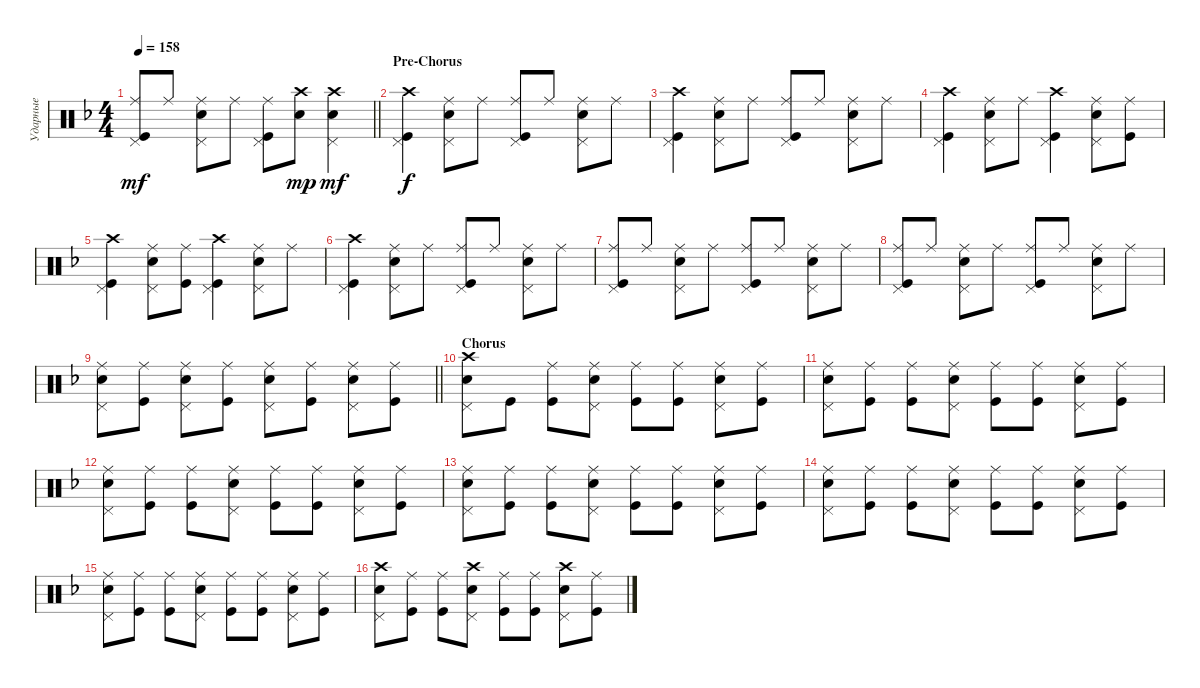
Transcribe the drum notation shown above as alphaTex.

\track ("Ударные" "Ударные") {instrument percussion}
\staff {score}
\articulation defaults
\ts (4 4)
\tempo 158
\clef neutral
\barLineRight lightlight
\ks dminor
("Ride (middle)" "Kick (hit)" "Pedal Hi-Hat (hit)").8{dy mf} "Ride (middle)".8 ("Snare (hit) 2" "Pedal Hi-Hat (hit)" "Ride (middle)").8 "Ride (middle)".8 ("Ride (middle)" "Kick (hit)" "Pedal Hi-Hat (hit)").8 ("Crash high (hit)" "Snare (hit) 2").8{dy mp} ("Crash high (hit)" "Snare (hit) 2" "Pedal Hi-Hat (hit)").4{dy mf} |
\section ("" "Pre-Chorus")
("Kick (hit)" "Crash high (hit)" "Pedal Hi-Hat (hit)").4{dy f} ("Ride (middle)" "Snare (hit) 2" "Pedal Hi-Hat (hit)").8 "Ride (middle)".8 ("Ride (middle)" "Kick (hit)" "Pedal Hi-Hat (hit)").8 "Ride (middle)".8 ("Ride (middle)" "Snare (hit) 2" "Pedal Hi-Hat (hit)").8 "Ride (middle)".8 |
("Kick (hit)" "Crash high (hit)" "Pedal Hi-Hat (hit)").4 ("Ride (middle)" "Snare (hit) 2" "Pedal Hi-Hat (hit)").8 "Ride (middle)".8 ("Ride (middle)" "Kick (hit)" "Pedal Hi-Hat (hit)").8 "Ride (middle)".8 ("Ride (middle)" "Snare (hit) 2" "Pedal Hi-Hat (hit)").8 "Ride (middle)".8 |
("Kick (hit)" "Crash high (hit)" "Pedal Hi-Hat (hit)").4 ("Ride (middle)" "Snare (hit) 2" "Pedal Hi-Hat (hit)").8 "Ride (middle)".8 ("Crash high (hit)" "Kick (hit)" "Pedal Hi-Hat (hit)").4 ("Ride (middle)" "Snare (hit) 2" "Pedal Hi-Hat (hit)").8 ("Ride (middle)" "Kick (hit)").8 |
("Kick (hit)" "Crash high (hit)" "Pedal Hi-Hat (hit)").4 ("Ride (middle)" "Snare (hit) 2" "Pedal Hi-Hat (hit)").8 ("Ride (middle)" "Kick (hit)").8 ("Crash high (hit)" "Kick (hit)" "Pedal Hi-Hat (hit)").4 ("Ride (middle)" "Snare (hit) 2" "Pedal Hi-Hat (hit)").8 "Ride (middle)".8 |
("Kick (hit)" "Crash high (hit)" "Pedal Hi-Hat (hit)").4 ("Ride (middle)" "Snare (hit) 2" "Pedal Hi-Hat (hit)").8 "Ride (middle)".8 ("Ride (middle)" "Kick (hit)" "Pedal Hi-Hat (hit)").8 "Ride (middle)".8 ("Ride (middle)" "Snare (hit) 2" "Pedal Hi-Hat (hit)").8 "Ride (middle)".8 |
("Kick (hit)" "Ride (middle)" "Pedal Hi-Hat (hit)").8 "Ride (middle)".8 ("Ride (middle)" "Snare (hit) 2" "Pedal Hi-Hat (hit)").8 "Ride (middle)".8 ("Ride (middle)" "Kick (hit)" "Pedal Hi-Hat (hit)").8 "Ride (middle)".8 ("Ride (middle)" "Snare (hit) 2" "Pedal Hi-Hat (hit)").8 "Ride (middle)".8 |
("Kick (hit)" "Ride (middle)" "Pedal Hi-Hat (hit)").8 "Ride (middle)".8 ("Ride (middle)" "Snare (hit) 2" "Pedal Hi-Hat (hit)").8 "Ride (middle)".8 ("Ride (middle)" "Kick (hit)" "Pedal Hi-Hat (hit)").8 "Ride (middle)".8 ("Ride (middle)" "Snare (hit) 2" "Pedal Hi-Hat (hit)").8 "Ride (middle)".8 |
\barLineRight lightlight
("Snare (hit) 2" "Ride (middle)" "Pedal Hi-Hat (hit)").8 ("Ride (middle)" "Kick (hit)").8 ("Ride (middle)" "Snare (hit) 2" "Pedal Hi-Hat (hit)").8 ("Ride (middle)" "Kick (hit)").8 ("Ride (middle)" "Snare (hit) 2" "Pedal Hi-Hat (hit)").8 ("Ride (middle)" "Kick (hit)").8 ("Ride (middle)" "Snare (hit) 2" "Pedal Hi-Hat (hit)").8 ("Ride (middle)" "Kick (hit)").8 |
\section ("" "Chorus")
("Snare (hit) 2" "Crash high (hit)" "Pedal Hi-Hat (hit)").8 "Kick (hit)".8 ("Kick (hit)" "Ride (middle)").8 ("Snare (hit) 2" "Ride (middle)" "Pedal Hi-Hat (hit)").8 ("Kick (hit)" "Ride (middle)").8 ("Kick (hit)" "Ride (middle)").8 ("Snare (hit) 2" "Ride (middle)" "Pedal Hi-Hat (hit)").8 ("Kick (hit)" "Ride (middle)").8 |
("Snare (hit) 2" "Ride (middle)" "Pedal Hi-Hat (hit)").8 ("Kick (hit)" "Ride (middle)").8 ("Kick (hit)" "Ride (middle)").8 ("Snare (hit) 2" "Ride (middle)" "Pedal Hi-Hat (hit)").8 ("Kick (hit)" "Ride (middle)").8 ("Kick (hit)" "Ride (middle)").8 ("Snare (hit) 2" "Ride (middle)" "Pedal Hi-Hat (hit)").8 ("Kick (hit)" "Ride (middle)").8 |
("Snare (hit) 2" "Ride (middle)" "Pedal Hi-Hat (hit)").8 ("Kick (hit)" "Ride (middle)").8 ("Kick (hit)" "Ride (middle)").8 ("Snare (hit) 2" "Ride (middle)" "Pedal Hi-Hat (hit)").8 ("Kick (hit)" "Ride (middle)").8 ("Kick (hit)" "Ride (middle)").8 ("Snare (hit) 2" "Ride (middle)" "Pedal Hi-Hat (hit)").8 ("Kick (hit)" "Ride (middle)").8 |
("Snare (hit) 2" "Ride (middle)" "Pedal Hi-Hat (hit)").8 ("Kick (hit)" "Ride (middle)").8 ("Kick (hit)" "Ride (middle)").8 ("Snare (hit) 2" "Ride (middle)" "Pedal Hi-Hat (hit)").8 ("Kick (hit)" "Ride (middle)").8 ("Kick (hit)" "Ride (middle)").8 ("Snare (hit) 2" "Ride (middle)" "Pedal Hi-Hat (hit)").8 ("Kick (hit)" "Ride (middle)").8 |
("Snare (hit) 2" "Ride (middle)" "Pedal Hi-Hat (hit)").8 ("Kick (hit)" "Ride (middle)").8 ("Kick (hit)" "Ride (middle)").8 ("Snare (hit) 2" "Ride (middle)" "Pedal Hi-Hat (hit)").8 ("Kick (hit)" "Ride (middle)").8 ("Kick (hit)" "Ride (middle)").8 ("Snare (hit) 2" "Ride (middle)" "Pedal Hi-Hat (hit)").8 ("Kick (hit)" "Ride (middle)").8 |
("Snare (hit) 2" "Ride (middle)" "Pedal Hi-Hat (hit)").8 ("Kick (hit)" "Ride (middle)").8 ("Kick (hit)" "Ride (middle)").8 ("Snare (hit) 2" "Ride (middle)" "Pedal Hi-Hat (hit)").8 ("Kick (hit)" "Ride (middle)").8 ("Kick (hit)" "Ride (middle)").8 ("Snare (hit) 2" "Ride (middle)" "Pedal Hi-Hat (hit)").8 ("Kick (hit)" "Ride (middle)").8 |
("Snare (hit) 2" "Crash high (hit)" "Pedal Hi-Hat (hit)").8 ("Kick (hit)" "Ride (middle)").8 ("Kick (hit)" "Ride (middle)").8 ("Snare (hit) 2" "Crash high (hit)" "Pedal Hi-Hat (hit)").8 ("Kick (hit)" "Ride (middle)").8 ("Kick (hit)" "Ride (middle)").8 ("Snare (hit) 2" "Crash high (hit)" "Pedal Hi-Hat (hit)").8 ("Kick (hit)" "Ride (middle)").8
